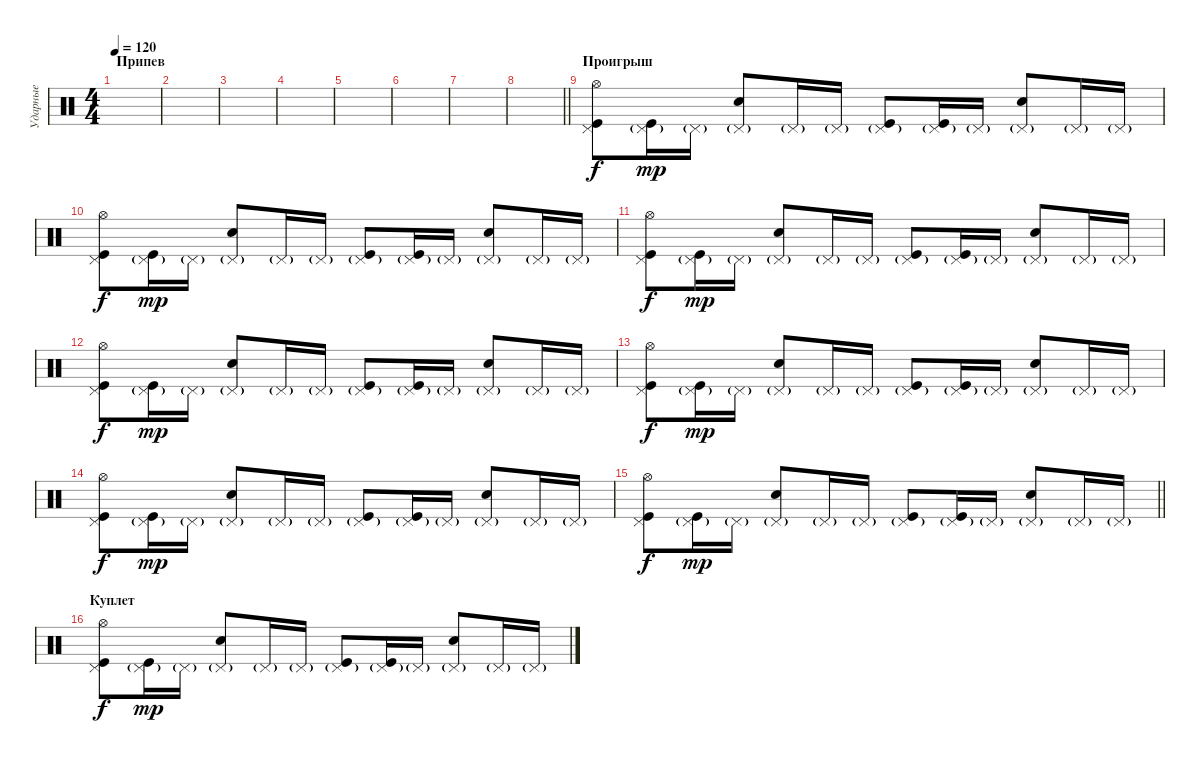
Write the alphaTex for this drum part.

\track ("Ударные" "Ударные") {instrument percussion}
\staff {score}
\articulation defaults
\ts (4 4)
\section ("" "Припев")
\tempo 120
\clef neutral
\ks c
|
|
|
|
|
|
|
\barLineRight lightlight
|
\section ("" "Проигрыш")
("Hi-Hat (open)" "Kick (hit)" "Pedal Hi-Hat (hit)").8 ("Kick (hit)" "Pedal Hi-Hat (hit)"{g}).16{dy mp} "Pedal Hi-Hat (hit)"{g}.16 ("Electric Snare (hit)" "Pedal Hi-Hat (hit)"{g}).8 "Pedal Hi-Hat (hit)"{g}.16 "Pedal Hi-Hat (hit)"{g}.16 ("Kick (hit)" "Pedal Hi-Hat (hit)"{g}).8 ("Kick (hit)" "Pedal Hi-Hat (hit)"{g}).16 "Pedal Hi-Hat (hit)"{g}.16 ("Electric Snare (hit)" "Pedal Hi-Hat (hit)"{g}).8 "Pedal Hi-Hat (hit)"{g}.16 "Pedal Hi-Hat (hit)"{g}.16 |
("Hi-Hat (open)" "Kick (hit)" "Pedal Hi-Hat (hit)").8{dy f} ("Kick (hit)" "Pedal Hi-Hat (hit)"{g}).16{dy mp} "Pedal Hi-Hat (hit)"{g}.16 ("Electric Snare (hit)" "Pedal Hi-Hat (hit)"{g}).8 "Pedal Hi-Hat (hit)"{g}.16 "Pedal Hi-Hat (hit)"{g}.16 ("Kick (hit)" "Pedal Hi-Hat (hit)"{g}).8 ("Kick (hit)" "Pedal Hi-Hat (hit)"{g}).16 "Pedal Hi-Hat (hit)"{g}.16 ("Electric Snare (hit)" "Pedal Hi-Hat (hit)"{g}).8 "Pedal Hi-Hat (hit)"{g}.16 "Pedal Hi-Hat (hit)"{g}.16 |
("Hi-Hat (open)" "Kick (hit)" "Pedal Hi-Hat (hit)").8{dy f} ("Kick (hit)" "Pedal Hi-Hat (hit)"{g}).16{dy mp} "Pedal Hi-Hat (hit)"{g}.16 ("Electric Snare (hit)" "Pedal Hi-Hat (hit)"{g}).8 "Pedal Hi-Hat (hit)"{g}.16 "Pedal Hi-Hat (hit)"{g}.16 ("Kick (hit)" "Pedal Hi-Hat (hit)"{g}).8 ("Kick (hit)" "Pedal Hi-Hat (hit)"{g}).16 "Pedal Hi-Hat (hit)"{g}.16 ("Electric Snare (hit)" "Pedal Hi-Hat (hit)"{g}).8 "Pedal Hi-Hat (hit)"{g}.16 "Pedal Hi-Hat (hit)"{g}.16 |
("Hi-Hat (open)" "Kick (hit)" "Pedal Hi-Hat (hit)").8{dy f} ("Kick (hit)" "Pedal Hi-Hat (hit)"{g}).16{dy mp} "Pedal Hi-Hat (hit)"{g}.16 ("Electric Snare (hit)" "Pedal Hi-Hat (hit)"{g}).8 "Pedal Hi-Hat (hit)"{g}.16 "Pedal Hi-Hat (hit)"{g}.16 ("Kick (hit)" "Pedal Hi-Hat (hit)"{g}).8 ("Kick (hit)" "Pedal Hi-Hat (hit)"{g}).16 "Pedal Hi-Hat (hit)"{g}.16 ("Electric Snare (hit)" "Pedal Hi-Hat (hit)"{g}).8 "Pedal Hi-Hat (hit)"{g}.16 "Pedal Hi-Hat (hit)"{g}.16 |
("Hi-Hat (open)" "Kick (hit)" "Pedal Hi-Hat (hit)").8{dy f} ("Kick (hit)" "Pedal Hi-Hat (hit)"{g}).16{dy mp} "Pedal Hi-Hat (hit)"{g}.16 ("Electric Snare (hit)" "Pedal Hi-Hat (hit)"{g}).8 "Pedal Hi-Hat (hit)"{g}.16 "Pedal Hi-Hat (hit)"{g}.16 ("Kick (hit)" "Pedal Hi-Hat (hit)"{g}).8 ("Kick (hit)" "Pedal Hi-Hat (hit)"{g}).16 "Pedal Hi-Hat (hit)"{g}.16 ("Electric Snare (hit)" "Pedal Hi-Hat (hit)"{g}).8 "Pedal Hi-Hat (hit)"{g}.16 "Pedal Hi-Hat (hit)"{g}.16 |
("Hi-Hat (open)" "Kick (hit)" "Pedal Hi-Hat (hit)").8{dy f} ("Kick (hit)" "Pedal Hi-Hat (hit)"{g}).16{dy mp} "Pedal Hi-Hat (hit)"{g}.16 ("Electric Snare (hit)" "Pedal Hi-Hat (hit)"{g}).8 "Pedal Hi-Hat (hit)"{g}.16 "Pedal Hi-Hat (hit)"{g}.16 ("Kick (hit)" "Pedal Hi-Hat (hit)"{g}).8 ("Kick (hit)" "Pedal Hi-Hat (hit)"{g}).16 "Pedal Hi-Hat (hit)"{g}.16 ("Electric Snare (hit)" "Pedal Hi-Hat (hit)"{g}).8 "Pedal Hi-Hat (hit)"{g}.16 "Pedal Hi-Hat (hit)"{g}.16 |
\barLineRight lightlight
("Hi-Hat (open)" "Kick (hit)" "Pedal Hi-Hat (hit)").8{dy f} ("Kick (hit)" "Pedal Hi-Hat (hit)"{g}).16{dy mp} "Pedal Hi-Hat (hit)"{g}.16 ("Electric Snare (hit)" "Pedal Hi-Hat (hit)"{g}).8 "Pedal Hi-Hat (hit)"{g}.16 "Pedal Hi-Hat (hit)"{g}.16 ("Kick (hit)" "Pedal Hi-Hat (hit)"{g}).8 ("Kick (hit)" "Pedal Hi-Hat (hit)"{g}).16 "Pedal Hi-Hat (hit)"{g}.16 ("Electric Snare (hit)" "Pedal Hi-Hat (hit)"{g}).8 "Pedal Hi-Hat (hit)"{g}.16 "Pedal Hi-Hat (hit)"{g}.16 |
\section ("" "Куплет")
("Hi-Hat (open)" "Kick (hit)" "Pedal Hi-Hat (hit)").8{dy f} ("Kick (hit)" "Pedal Hi-Hat (hit)"{g}).16{dy mp} "Pedal Hi-Hat (hit)"{g}.16 ("Electric Snare (hit)" "Pedal Hi-Hat (hit)"{g}).8 "Pedal Hi-Hat (hit)"{g}.16 "Pedal Hi-Hat (hit)"{g}.16 ("Kick (hit)" "Pedal Hi-Hat (hit)"{g}).8 ("Kick (hit)" "Pedal Hi-Hat (hit)"{g}).16 "Pedal Hi-Hat (hit)"{g}.16 ("Electric Snare (hit)" "Pedal Hi-Hat (hit)"{g}).8 "Pedal Hi-Hat (hit)"{g}.16 "Pedal Hi-Hat (hit)"{g}.16
